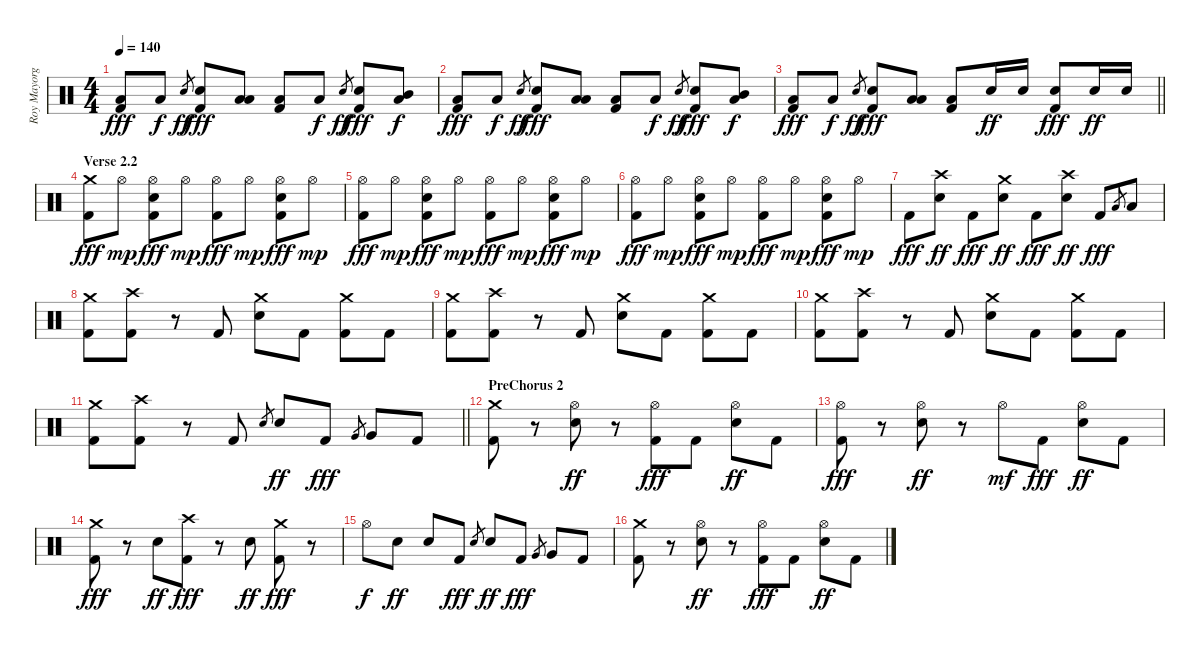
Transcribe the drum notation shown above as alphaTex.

\track ("Roy Mayorga" "Roy Mayorg") {instrument percussion}
\staff {score}
\articulation defaults
\ts (4 4)
\tempo 140
\clef neutral
\ks c
("Low Floor Tom (hit)" "Kick (hit) 2").8{dy fff} "Low Floor Tom (hit)".8{dy f} "Electric Snare (hit)".8{gr dy ff} ("Electric Snare (hit)" "Kick (hit) 2").8{dy fff} ("Low Tom (hit)" "Low Floor Tom (hit)").8 ("Low Floor Tom (hit)" "Kick (hit) 2").8 "Low Floor Tom (hit)".8{dy f} "Electric Snare (hit)".8{gr dy ff} ("Electric Snare (hit)" "Kick (hit) 2").8{dy fff} ("Mid Tom (hit)" "Low Floor Tom (hit)").8{dy f} |
("Low Floor Tom (hit)" "Kick (hit) 2").8{dy fff} "Low Floor Tom (hit)".8{dy f} "Electric Snare (hit)".8{gr dy ff} ("Electric Snare (hit)" "Kick (hit) 2").8{dy fff} ("Low Tom (hit)" "Low Floor Tom (hit)").8 ("Low Floor Tom (hit)" "Kick (hit) 2").8 "Low Floor Tom (hit)".8{dy f} "Electric Snare (hit)".8{gr dy ff} ("Electric Snare (hit)" "Kick (hit) 2").8{dy fff} ("Mid Tom (hit)" "Low Floor Tom (hit)").8{dy f} |
\barLineRight lightlight
("Low Floor Tom (hit)" "Kick (hit) 2").8{dy fff} "Low Floor Tom (hit)".8{dy f} "Electric Snare (hit)".8{gr dy ff} ("Electric Snare (hit)" "Kick (hit) 2").8{dy fff} ("Low Tom (hit)" "Low Floor Tom (hit)").8 ("Low Floor Tom (hit)" "Kick (hit) 2").8 "Electric Snare (hit)".16{dy ff} "Electric Snare (hit)".16 ("Electric Snare (hit)" "Kick (hit) 2").8{dy fff} "Electric Snare (hit)".16{dy ff} "Electric Snare (hit)".16 |
\section ("" "Verse 2.2")
("Crash medium (hit)" "Kick (hit) 2").8{dy fff} "Hi-Hat (open)".8{dy mp} ("Hi-Hat (open)" "Electric Snare (hit)" "Kick (hit) 2").8{dy fff} "Hi-Hat (open)".8{dy mp} ("Hi-Hat (open)" "Kick (hit) 2").8{dy fff} "Hi-Hat (open)".8{dy mp} ("Hi-Hat (open)" "Electric Snare (hit)" "Kick (hit) 2").8{dy fff} "Hi-Hat (open)".8{dy mp} |
("Hi-Hat (open)" "Kick (hit) 2").8{dy fff} "Hi-Hat (open)".8{dy mp} ("Hi-Hat (open)" "Electric Snare (hit)" "Kick (hit) 2").8{dy fff} "Hi-Hat (open)".8{dy mp} ("Hi-Hat (open)" "Kick (hit) 2").8{dy fff} "Hi-Hat (open)".8{dy mp} ("Hi-Hat (open)" "Electric Snare (hit)" "Kick (hit) 2").8{dy fff} "Hi-Hat (open)".8{dy mp} |
("Hi-Hat (open)" "Kick (hit) 2").8{dy fff} "Hi-Hat (open)".8{dy mp} ("Hi-Hat (open)" "Electric Snare (hit)" "Kick (hit) 2").8{dy fff} "Hi-Hat (open)".8{dy mp} ("Hi-Hat (open)" "Kick (hit) 2").8{dy fff} "Hi-Hat (open)".8{dy mp} ("Hi-Hat (open)" "Electric Snare (hit)" "Kick (hit) 2").8{dy fff} "Hi-Hat (open)".8{dy mp} |
"Kick (hit) 2".8{dy fff} ("Crash high (hit)" "Electric Snare (hit)").8{dy ff} "Kick (hit) 2".8{dy fff} ("Crash medium (hit)" "Electric Snare (hit)").8{dy ff} "Kick (hit) 2".8{dy fff} ("Crash high (hit)" "Electric Snare (hit)").8{dy ff} "Kick (hit) 2".8{dy fff} "Low Floor Tom (hit)".8{gr} "Low Floor Tom (hit)".8 |
("Crash medium (hit)" "Kick (hit) 2").8 ("Crash high (hit)" "Kick (hit) 2").8 r.8 "Kick (hit) 2".8 ("Crash medium (hit)" "Electric Snare (hit)").8 "Kick (hit) 2".8 ("Crash medium (hit)" "Kick (hit) 2").8 "Kick (hit) 2".8 |
("Crash medium (hit)" "Kick (hit) 2").8 ("Crash high (hit)" "Kick (hit) 2").8 r.8 "Kick (hit) 2".8 ("Crash medium (hit)" "Electric Snare (hit)").8 "Kick (hit) 2".8 ("Crash medium (hit)" "Kick (hit) 2").8 "Kick (hit) 2".8 |
("Crash medium (hit)" "Kick (hit) 2").8 ("Crash high (hit)" "Kick (hit) 2").8 r.8 "Kick (hit) 2".8 ("Crash medium (hit)" "Electric Snare (hit)").8 "Kick (hit) 2".8 ("Crash medium (hit)" "Kick (hit) 2").8 "Kick (hit) 2".8 |
\barLineRight lightlight
("Crash medium (hit)" "Kick (hit) 2").8 ("Crash high (hit)" "Kick (hit) 2").8 r.8 "Kick (hit) 2".8 "Electric Snare (hit)".8{gr} "Electric Snare (hit)".8{dy ff} "Kick (hit) 2".8{dy fff} "Very Low Tom (hit)".8{gr} "Very Low Tom (hit)".8 "Kick (hit) 2".8 |
\section ("" "PreChorus 2")
("Crash medium (hit)" "Kick (hit) 2").8 r.8 ("Hi-Hat (open)" "Electric Snare (hit)").8{dy ff} r.8 ("Hi-Hat (open)" "Kick (hit) 2").8{dy fff} "Kick (hit) 2".8 ("Hi-Hat (open)" "Electric Snare (hit)").8{dy ff} "Kick (hit) 2".8 |
("Hi-Hat (open)" "Kick (hit) 2").8{dy fff} r.8 ("Hi-Hat (open)" "Electric Snare (hit)").8{dy ff} r.8 "Hi-Hat (open)".8{dy mf} "Kick (hit) 2".8{dy fff} ("Hi-Hat (open)" "Electric Snare (hit)").8{dy ff} "Kick (hit) 2".8 |
("Crash medium (hit)" "Kick (hit) 2").8{dy fff} r.8 "Electric Snare (hit)".8{dy ff} ("Crash high (hit)" "Kick (hit) 2").8{dy fff} r.8 "Electric Snare (hit)".8{dy ff} ("Crash medium (hit)" "Kick (hit) 2").8{dy fff} r.8 |
"Hi-Hat (open)".8{dy f} "Electric Snare (hit)".8{dy ff} "Electric Snare (hit)".8 "Kick (hit) 2".8{dy fff} "Electric Snare (hit)".8{gr} "Electric Snare (hit)".8{dy ff} "Kick (hit) 2".8{dy fff} "Very Low Tom (hit)".8{gr} "Very Low Tom (hit)".8 "Kick (hit) 2".8 |
("Crash medium (hit)" "Kick (hit) 2").8 r.8 ("Hi-Hat (open)" "Electric Snare (hit)").8{dy ff} r.8 ("Hi-Hat (open)" "Kick (hit) 2").8{dy fff} "Kick (hit) 2".8 ("Hi-Hat (open)" "Electric Snare (hit)").8{dy ff} "Kick (hit) 2".8
